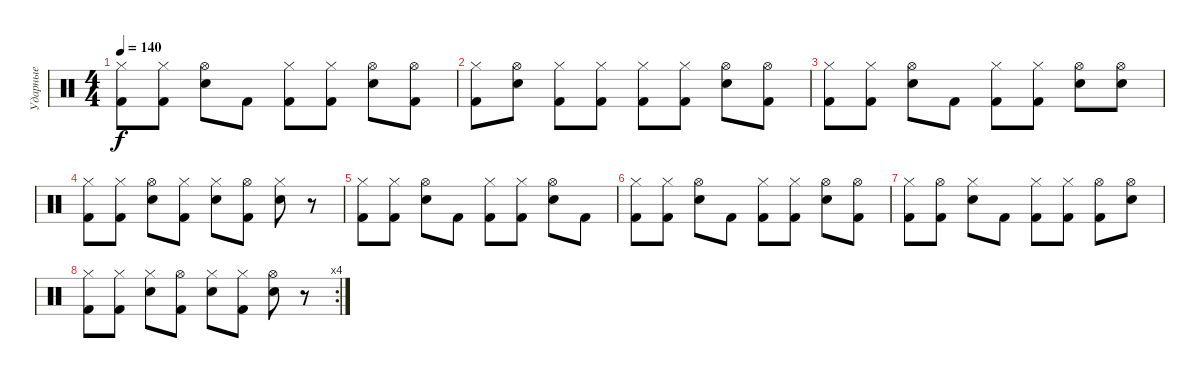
\track ("Ударные" "Ударные") {instrument percussion}
\staff {score}
\articulation defaults
\ts (4 4)
\tempo 140
\clef neutral
\ks c
("Hi-Hat (closed)" "Kick (hit) 2").8{dy f} ("Hi-Hat (closed)" "Kick (hit) 2").8 ("Hi-Hat (open)" "Electric Snare (hit)").8 "Kick (hit) 2".8 ("Hi-Hat (closed)" "Kick (hit) 2").8 ("Hi-Hat (closed)" "Kick (hit) 2").8 ("Hi-Hat (open)" "Electric Snare (hit)").8 ("Hi-Hat (open)" "Kick (hit) 2").8 |
("Hi-Hat (closed)" "Kick (hit) 2").8 ("Hi-Hat (open)" "Electric Snare (hit)").8 ("Hi-Hat (closed)" "Kick (hit) 2").8 ("Hi-Hat (closed)" "Kick (hit) 2").8 ("Hi-Hat (closed)" "Kick (hit) 2").8 ("Hi-Hat (closed)" "Kick (hit) 2").8 ("Hi-Hat (open)" "Electric Snare (hit)").8 ("Hi-Hat (open)" "Kick (hit) 2").8 |
("Hi-Hat (closed)" "Kick (hit) 2").8 ("Hi-Hat (closed)" "Kick (hit) 2").8 ("Hi-Hat (open)" "Electric Snare (hit)").8 "Kick (hit) 2".8 ("Hi-Hat (closed)" "Kick (hit) 2").8 ("Hi-Hat (closed)" "Kick (hit) 2").8 ("Hi-Hat (open)" "Electric Snare (hit)").8 ("Hi-Hat (open)" "Electric Snare (hit)").8 |
("Hi-Hat (closed)" "Kick (hit) 2").8 ("Hi-Hat (closed)" "Kick (hit) 2").8 ("Hi-Hat (open)" "Electric Snare (hit)").8 ("Hi-Hat (closed)" "Kick (hit) 2").8 ("Hi-Hat (closed)" "Electric Snare (hit)").8 ("Hi-Hat (open)" "Kick (hit) 2").8 ("Hi-Hat (closed)" "Electric Snare (hit)").8 r.8 |
("Hi-Hat (closed)" "Kick (hit) 2").8 ("Hi-Hat (closed)" "Kick (hit) 2").8 ("Hi-Hat (open)" "Electric Snare (hit)").8 "Kick (hit) 2".8 ("Hi-Hat (closed)" "Kick (hit) 2").8 ("Hi-Hat (closed)" "Kick (hit) 2").8 ("Hi-Hat (open)" "Electric Snare (hit)").8 "Kick (hit) 2".8 |
("Hi-Hat (closed)" "Kick (hit) 2").8 ("Hi-Hat (closed)" "Kick (hit) 2").8 ("Hi-Hat (open)" "Electric Snare (hit)").8 "Kick (hit) 2".8 ("Hi-Hat (closed)" "Kick (hit) 2").8 ("Hi-Hat (closed)" "Kick (hit) 2").8 ("Hi-Hat (open)" "Electric Snare (hit)").8 ("Hi-Hat (open)" "Kick (hit) 2").8 |
("Hi-Hat (closed)" "Kick (hit) 2").8 ("Hi-Hat (open)" "Kick (hit) 2").8 ("Hi-Hat (closed)" "Electric Snare (hit)").8 "Kick (hit) 2".8 ("Hi-Hat (closed)" "Kick (hit) 2").8 ("Hi-Hat (closed)" "Kick (hit) 2").8 ("Hi-Hat (open)" "Kick (hit) 2").8 ("Hi-Hat (open)" "Electric Snare (hit)").8 |
\rc 4
("Hi-Hat (closed)" "Kick (hit) 2").8 ("Hi-Hat (closed)" "Kick (hit) 2").8 ("Hi-Hat (closed)" "Electric Snare (hit)").8 ("Hi-Hat (open)" "Kick (hit) 2").8 ("Hi-Hat (closed)" "Electric Snare (hit)").8 ("Hi-Hat (closed)" "Kick (hit) 2").8 ("Hi-Hat (open)" "Electric Snare (hit)").8 r.8
